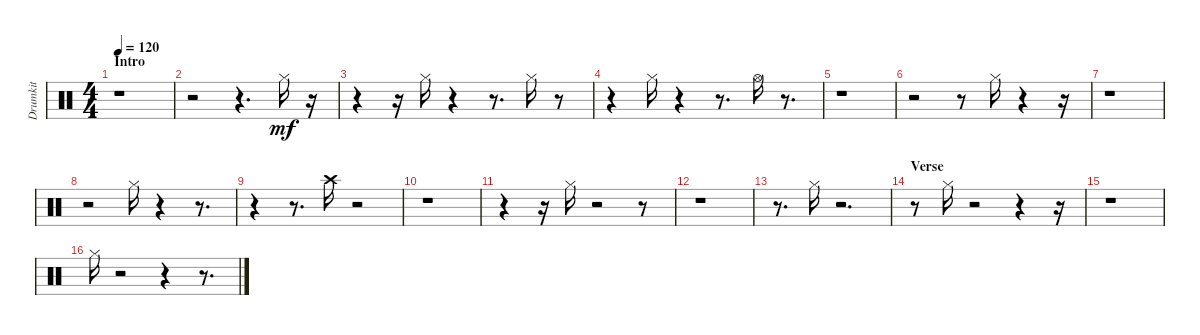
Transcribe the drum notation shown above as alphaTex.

\track ("Drumkit" "Drumkit") {instrument percussion}
\staff {score}
\articulation defaults
\ts (4 4)
\section ("" "Intro")
\tempo 120
\clef neutral
\ks aminor
r.1{dy mf} |
r.2 r.4{d} "Hi-Hat (closed)".16 r.16 |
r.4 r.16 "Hi-Hat (closed)".16 r.4 r.8{d} "Hi-Hat (closed)".16 r.8 |
r.4 "Hi-Hat (closed)".16 r.4 r.8{d} "Hi-Hat (open)".16 r.8{d} |
r.1 |
r.2 r.8 "Hi-Hat (closed)".16 r.4 r.16 |
r.1 |
r.2 "Hi-Hat (closed)".16 r.4 r.8{d} |
r.4 r.8{d} "Crash high (hit)".16 r.2 |
r.1 |
r.4 r.16 "Hi-Hat (closed)".16 r.2 r.8 |
r.1 |
r.8{d} "Hi-Hat (closed)".16 r.2{d} |
\section ("" "Verse")
r.8 "Hi-Hat (closed)".16 r.2 r.4 r.16 |
r.1 |
"Hi-Hat (closed)".16 r.2 r.4 r.8{d}
